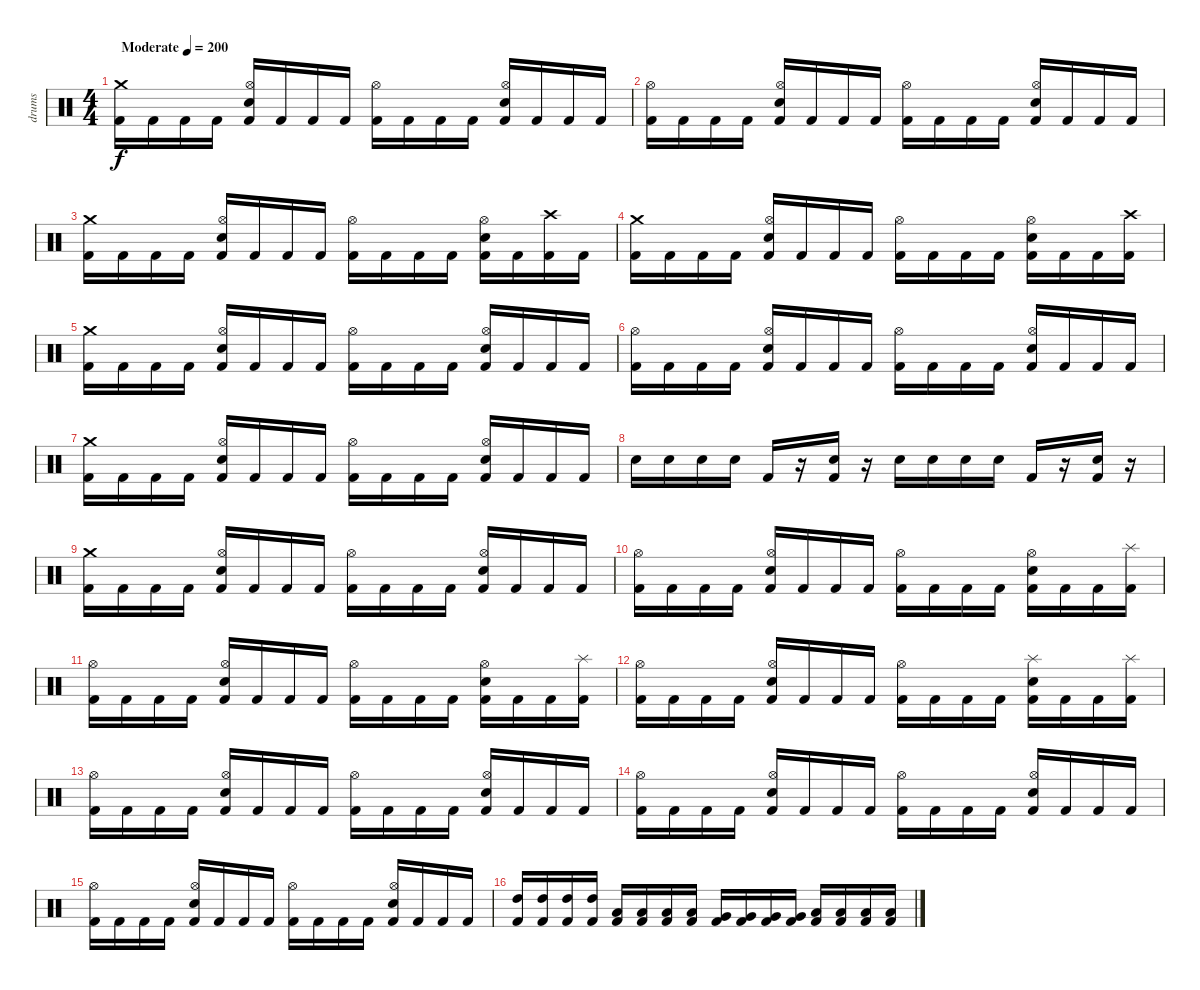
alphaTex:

\track ("drums" "drums") {instrument percussion}
\staff {score}
\articulation defaults
\ts (4 4)
\tempo (200 "Moderate")
\clef neutral
\ks c
("Crash medium (hit)" "Kick (hit) 2").16{dy f} "Kick (hit) 2".16 "Kick (hit) 2".16 "Kick (hit) 2".16 ("Hi-Hat (open)" "Snare (hit) 2" "Kick (hit) 2").16 "Kick (hit) 2".16 "Kick (hit) 2".16 "Kick (hit) 2".16 ("Hi-Hat (open)" "Kick (hit) 2").16 "Kick (hit) 2".16 "Kick (hit) 2".16 "Kick (hit) 2".16 ("Hi-Hat (open)" "Snare (hit) 2" "Kick (hit) 2").16 "Kick (hit) 2".16 "Kick (hit) 2".16 "Kick (hit) 2".16 |
("Hi-Hat (open)" "Kick (hit) 2").16 "Kick (hit) 2".16 "Kick (hit) 2".16 "Kick (hit) 2".16 ("Hi-Hat (open)" "Snare (hit) 2" "Kick (hit) 2").16 "Kick (hit) 2".16 "Kick (hit) 2".16 "Kick (hit) 2".16 ("Hi-Hat (open)" "Kick (hit) 2").16 "Kick (hit) 2".16 "Kick (hit) 2".16 "Kick (hit) 2".16 ("Hi-Hat (open)" "Snare (hit) 2" "Kick (hit) 2").16 "Kick (hit) 2".16 "Kick (hit) 2".16 "Kick (hit) 2".16 |
("Crash medium (hit)" "Kick (hit) 2").16 "Kick (hit) 2".16 "Kick (hit) 2".16 "Kick (hit) 2".16 ("Hi-Hat (open)" "Snare (hit) 2" "Kick (hit) 2").16 "Kick (hit) 2".16 "Kick (hit) 2".16 "Kick (hit) 2".16 ("Hi-Hat (open)" "Kick (hit) 2").16 "Kick (hit) 2".16 "Kick (hit) 2".16 "Kick (hit) 2".16 ("Hi-Hat (open)" "Snare (hit) 2" "Kick (hit) 2").16 "Kick (hit) 2".16 ("Crash high (hit)" "Kick (hit) 2").16 "Kick (hit) 2".16 |
("Crash medium (hit)" "Kick (hit) 2").16 "Kick (hit) 2".16 "Kick (hit) 2".16 "Kick (hit) 2".16 ("Hi-Hat (open)" "Snare (hit) 2" "Kick (hit) 2").16 "Kick (hit) 2".16 "Kick (hit) 2".16 "Kick (hit) 2".16 ("Hi-Hat (open)" "Kick (hit) 2").16 "Kick (hit) 2".16 "Kick (hit) 2".16 "Kick (hit) 2".16 ("Hi-Hat (open)" "Snare (hit) 2" "Kick (hit) 2").16 "Kick (hit) 2".16 "Kick (hit) 2".16 ("Crash high (hit)" "Kick (hit) 2").16 |
("Crash medium (hit)" "Kick (hit) 2").16 "Kick (hit) 2".16 "Kick (hit) 2".16 "Kick (hit) 2".16 ("Hi-Hat (open)" "Snare (hit) 2" "Kick (hit) 2").16 "Kick (hit) 2".16 "Kick (hit) 2".16 "Kick (hit) 2".16 ("Hi-Hat (open)" "Kick (hit) 2").16 "Kick (hit) 2".16 "Kick (hit) 2".16 "Kick (hit) 2".16 ("Hi-Hat (open)" "Snare (hit) 2" "Kick (hit) 2").16 "Kick (hit) 2".16 "Kick (hit) 2".16 "Kick (hit) 2".16 |
("Hi-Hat (open)" "Kick (hit) 2").16 "Kick (hit) 2".16 "Kick (hit) 2".16 "Kick (hit) 2".16 ("Hi-Hat (open)" "Snare (hit) 2" "Kick (hit) 2").16 "Kick (hit) 2".16 "Kick (hit) 2".16 "Kick (hit) 2".16 ("Hi-Hat (open)" "Kick (hit) 2").16 "Kick (hit) 2".16 "Kick (hit) 2".16 "Kick (hit) 2".16 ("Hi-Hat (open)" "Snare (hit) 2" "Kick (hit) 2").16 "Kick (hit) 2".16 "Kick (hit) 2".16 "Kick (hit) 2".16 |
("Crash medium (hit)" "Kick (hit) 2").16 "Kick (hit) 2".16 "Kick (hit) 2".16 "Kick (hit) 2".16 ("Hi-Hat (open)" "Snare (hit) 2" "Kick (hit) 2").16 "Kick (hit) 2".16 "Kick (hit) 2".16 "Kick (hit) 2".16 ("Hi-Hat (open)" "Kick (hit) 2").16 "Kick (hit) 2".16 "Kick (hit) 2".16 "Kick (hit) 2".16 ("Hi-Hat (open)" "Snare (hit) 2" "Kick (hit) 2").16 "Kick (hit) 2".16 "Kick (hit) 2".16 "Kick (hit) 2".16 |
"Snare (hit) 2".16 "Snare (hit) 2".16 "Snare (hit) 2".16 "Snare (hit) 2".16 "Kick (hit) 2".16 r.16 ("Snare (hit) 2" "Kick (hit) 2").16 r.16 "Snare (hit) 2".16 "Snare (hit) 2".16 "Snare (hit) 2".16 "Snare (hit) 2".16 "Kick (hit) 2".16 r.16 ("Snare (hit) 2" "Kick (hit) 2").16 r.16 |
("Crash medium (hit)" "Kick (hit) 2").16 "Kick (hit) 2".16 "Kick (hit) 2".16 "Kick (hit) 2".16 ("Hi-Hat (open)" "Snare (hit) 2" "Kick (hit) 2").16 "Kick (hit) 2".16 "Kick (hit) 2".16 "Kick (hit) 2".16 ("Hi-Hat (open)" "Kick (hit) 2").16 "Kick (hit) 2".16 "Kick (hit) 2".16 "Kick (hit) 2".16 ("Hi-Hat (open)" "Snare (hit) 2" "Kick (hit) 2").16 "Kick (hit) 2".16 "Kick (hit) 2".16 "Kick (hit) 2".16 |
("Hi-Hat (open)" "Kick (hit) 2").16 "Kick (hit) 2".16 "Kick (hit) 2".16 "Kick (hit) 2".16 ("Hi-Hat (open)" "Snare (hit) 2" "Kick (hit) 2").16 "Kick (hit) 2".16 "Kick (hit) 2".16 "Kick (hit) 2".16 ("Hi-Hat (open)" "Kick (hit) 2").16 "Kick (hit) 2".16 "Kick (hit) 2".16 "Kick (hit) 2".16 ("Hi-Hat (open)" "Snare (hit) 2" "Kick (hit) 2").16 "Kick (hit) 2".16 "Kick (hit) 2".16 ("Splash (hit)" "Kick (hit) 2").16 |
("Hi-Hat (open)" "Kick (hit) 2").16 "Kick (hit) 2".16 "Kick (hit) 2".16 "Kick (hit) 2".16 ("Hi-Hat (open)" "Snare (hit) 2" "Kick (hit) 2").16 "Kick (hit) 2".16 "Kick (hit) 2".16 "Kick (hit) 2".16 ("Hi-Hat (open)" "Kick (hit) 2").16 "Kick (hit) 2".16 "Kick (hit) 2".16 "Kick (hit) 2".16 ("Hi-Hat (open)" "Snare (hit) 2" "Kick (hit) 2").16 "Kick (hit) 2".16 "Kick (hit) 2".16 ("Splash (hit)" "Kick (hit) 2").16 |
("Hi-Hat (open)" "Kick (hit) 2").16 "Kick (hit) 2".16 "Kick (hit) 2".16 "Kick (hit) 2".16 ("Hi-Hat (open)" "Snare (hit) 2" "Kick (hit) 2").16 "Kick (hit) 2".16 "Kick (hit) 2".16 "Kick (hit) 2".16 ("Hi-Hat (open)" "Kick (hit) 2").16 "Kick (hit) 2".16 "Kick (hit) 2".16 "Kick (hit) 2".16 ("Splash (hit)" "Snare (hit) 2" "Kick (hit) 2").16 "Kick (hit) 2".16 "Kick (hit) 2".16 ("Splash (hit)" "Kick (hit) 2").16 |
("Hi-Hat (open)" "Kick (hit) 2").16 "Kick (hit) 2".16 "Kick (hit) 2".16 "Kick (hit) 2".16 ("Hi-Hat (open)" "Snare (hit) 2" "Kick (hit) 2").16 "Kick (hit) 2".16 "Kick (hit) 2".16 "Kick (hit) 2".16 ("Hi-Hat (open)" "Kick (hit) 2").16 "Kick (hit) 2".16 "Kick (hit) 2".16 "Kick (hit) 2".16 ("Hi-Hat (open)" "Snare (hit) 2" "Kick (hit) 2").16 "Kick (hit) 2".16 "Kick (hit) 2".16 "Kick (hit) 2".16 |
("Hi-Hat (open)" "Kick (hit) 2").16 "Kick (hit) 2".16 "Kick (hit) 2".16 "Kick (hit) 2".16 ("Hi-Hat (open)" "Snare (hit) 2" "Kick (hit) 2").16 "Kick (hit) 2".16 "Kick (hit) 2".16 "Kick (hit) 2".16 ("Hi-Hat (open)" "Kick (hit) 2").16 "Kick (hit) 2".16 "Kick (hit) 2".16 "Kick (hit) 2".16 ("Hi-Hat (open)" "Snare (hit) 2" "Kick (hit) 2").16 "Kick (hit) 2".16 "Kick (hit) 2".16 "Kick (hit) 2".16 |
("Hi-Hat (open)" "Kick (hit) 2").16 "Kick (hit) 2".16 "Kick (hit) 2".16 "Kick (hit) 2".16 ("Hi-Hat (open)" "Snare (hit) 2" "Kick (hit) 2").16 "Kick (hit) 2".16 "Kick (hit) 2".16 "Kick (hit) 2".16 ("Hi-Hat (open)" "Kick (hit) 2").16 "Kick (hit) 2".16 "Kick (hit) 2".16 "Kick (hit) 2".16 ("Hi-Hat (open)" "Snare (hit) 2" "Kick (hit) 2").16 "Kick (hit) 2".16 "Kick (hit) 2".16 "Kick (hit) 2".16 |
("High Tom (hit)" "Kick (hit) 2").16 ("High Tom (hit)" "Kick (hit) 2").16 ("High Tom (hit)" "Kick (hit) 2").16 ("High Tom (hit)" "Kick (hit) 2").16 ("Low Tom (hit)" "Kick (hit) 2").16 ("Low Tom (hit)" "Kick (hit) 2").16 ("Low Tom (hit)" "Kick (hit) 2").16 ("Low Tom (hit)" "Kick (hit) 2").16 ("Very Low Tom (hit)" "Kick (hit) 2").16 ("Very Low Tom (hit)" "Kick (hit) 2").16 ("Very Low Tom (hit)" "Kick (hit) 2").16 ("Very Low Tom (hit)" "Kick (hit) 2").16 ("Low Floor Tom (hit)" "Kick (hit) 2").16 ("Low Floor Tom (hit)" "Kick (hit) 2").16 ("Low Floor Tom (hit)" "Kick (hit) 2").16 ("Low Floor Tom (hit)" "Kick (hit) 2").16
